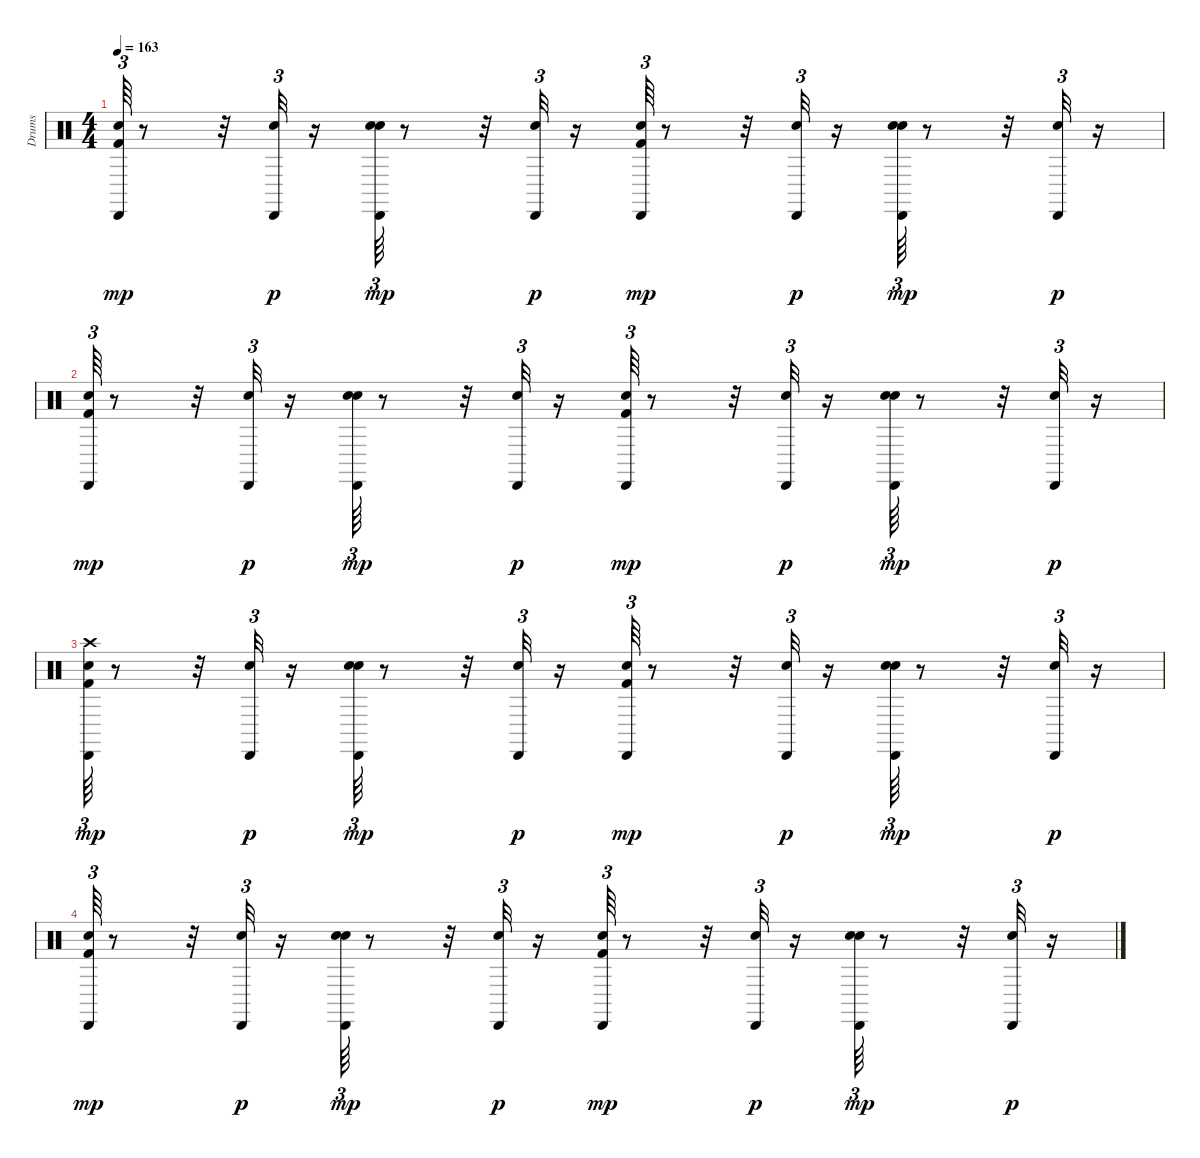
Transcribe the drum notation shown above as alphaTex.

\track ("Drums               " "Drums     ") {instrument percussion}
\staff {score}
\articulation defaults
\ts (4 4)
\tempo 163
\clef neutral
\ks c
("Kick (hit) 2" "Snare (hit) 2" "Cabasa (hit)").64{tu (3 2) dy mp} r.8 r.32 ("Snare (hit) 2" "Cabasa (hit)").32{tu (3 2) dy p} r.16 ("Snare (hit) 2" "Hand Clap (hit)" "Cabasa (hit)").64{tu (3 2) dy mp} r.8 r.32 ("Snare (hit) 2" "Cabasa (hit)").32{tu (3 2) dy p} r.16 ("Kick (hit) 2" "Snare (hit) 2" "Cabasa (hit)").64{tu (3 2) dy mp} r.8 r.32 ("Snare (hit) 2" "Cabasa (hit)").32{tu (3 2) dy p} r.16 ("Snare (hit) 2" "Hand Clap (hit)" "Cabasa (hit)").64{tu (3 2) dy mp} r.8 r.32 ("Snare (hit) 2" "Cabasa (hit)").32{tu (3 2) dy p} r.16 |
("Kick (hit) 2" "Snare (hit) 2" "Cabasa (hit)").64{tu (3 2) dy mp} r.8 r.32 ("Snare (hit) 2" "Cabasa (hit)").32{tu (3 2) dy p} r.16 ("Snare (hit) 2" "Hand Clap (hit)" "Cabasa (hit)").64{tu (3 2) dy mp} r.8 r.32 ("Snare (hit) 2" "Cabasa (hit)").32{tu (3 2) dy p} r.16 ("Kick (hit) 2" "Snare (hit) 2" "Cabasa (hit)").64{tu (3 2) dy mp} r.8 r.32 ("Snare (hit) 2" "Cabasa (hit)").32{tu (3 2) dy p} r.16 ("Snare (hit) 2" "Hand Clap (hit)" "Cabasa (hit)").64{tu (3 2) dy mp} r.8 r.32 ("Snare (hit) 2" "Cabasa (hit)").32{tu (3 2) dy p} r.16 |
("Kick (hit) 2" "Snare (hit) 2" "Crash high (hit)" "Cabasa (hit)").64{tu (3 2) dy mp} r.8 r.32 ("Snare (hit) 2" "Cabasa (hit)").32{tu (3 2) dy p} r.16 ("Snare (hit) 2" "Hand Clap (hit)" "Cabasa (hit)").64{tu (3 2) dy mp} r.8 r.32 ("Snare (hit) 2" "Cabasa (hit)").32{tu (3 2) dy p} r.16 ("Kick (hit) 2" "Snare (hit) 2" "Cabasa (hit)").64{tu (3 2) dy mp} r.8 r.32 ("Snare (hit) 2" "Cabasa (hit)").32{tu (3 2) dy p} r.16 ("Snare (hit) 2" "Hand Clap (hit)" "Cabasa (hit)").64{tu (3 2) dy mp} r.8 r.32 ("Snare (hit) 2" "Cabasa (hit)").32{tu (3 2) dy p} r.16 |
("Kick (hit) 2" "Snare (hit) 2" "Cabasa (hit)").64{tu (3 2) dy mp} r.8 r.32 ("Snare (hit) 2" "Cabasa (hit)").32{tu (3 2) dy p} r.16 ("Snare (hit) 2" "Hand Clap (hit)" "Cabasa (hit)").64{tu (3 2) dy mp} r.8 r.32 ("Snare (hit) 2" "Cabasa (hit)").32{tu (3 2) dy p} r.16 ("Kick (hit) 2" "Snare (hit) 2" "Cabasa (hit)").64{tu (3 2) dy mp} r.8 r.32 ("Snare (hit) 2" "Cabasa (hit)").32{tu (3 2) dy p} r.16 ("Snare (hit) 2" "Hand Clap (hit)" "Cabasa (hit)").64{tu (3 2) dy mp} r.8 r.32 ("Snare (hit) 2" "Cabasa (hit)").32{tu (3 2) dy p} r.16
